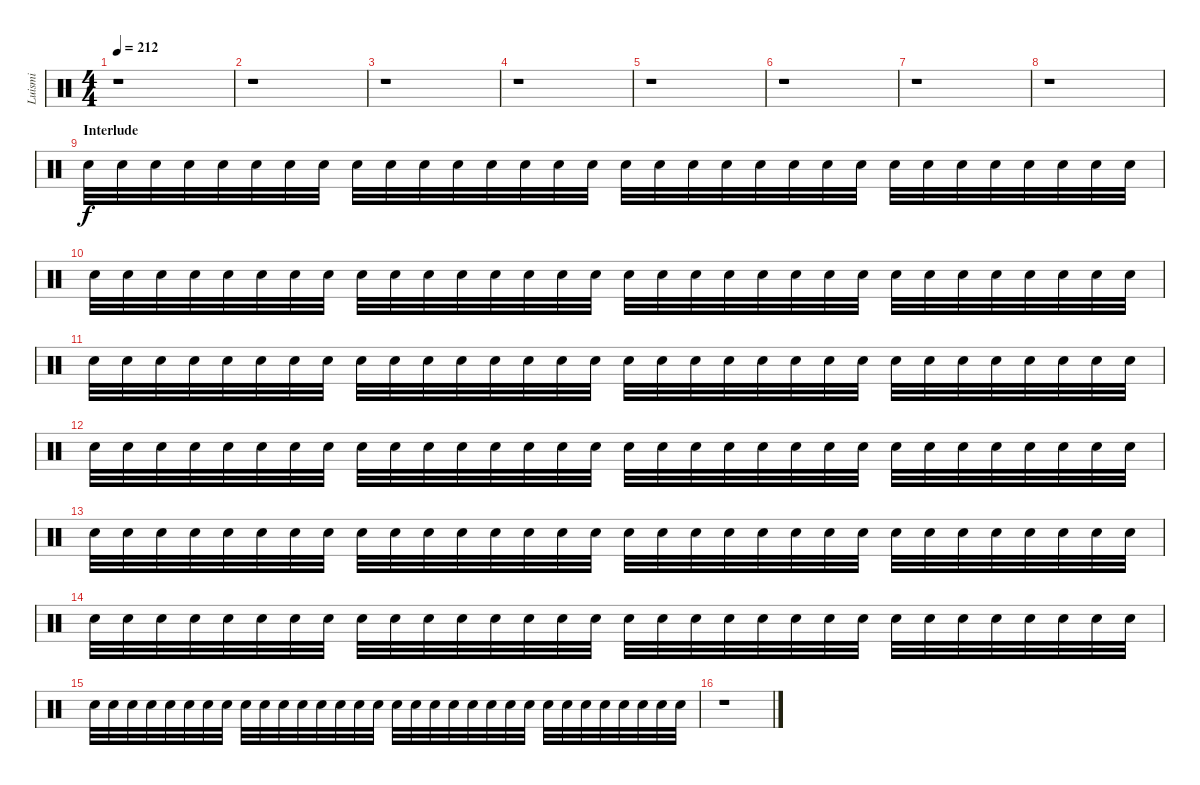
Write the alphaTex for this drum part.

\track ("Luismi" "Luismi") {instrument percussion}
\staff {score}
\articulation defaults
\ts (4 4)
\tempo 212
\clef neutral
\ks c
r.1{dy f} |
r.1 |
r.1 |
r.1 |
r.1 |
r.1 |
r.1 |
r.1 |
\section ("" "Interlude")
"Electric Snare (hit)".32{volume 1} "Snare (hit) 2".32 "Snare (hit) 2".32 "Snare (hit) 2".32 "Snare (hit) 2".32 "Snare (hit) 2".32 "Snare (hit) 2".32 "Snare (hit) 2".32 "Snare (hit) 2".32 "Snare (hit) 2".32 "Snare (hit) 2".32 "Snare (hit) 2".32 "Snare (hit) 2".32 "Snare (hit) 2".32 "Snare (hit) 2".32 "Snare (hit) 2".32 "Electric Snare (hit)".32{volume 2} "Snare (hit) 2".32 "Snare (hit) 2".32 "Snare (hit) 2".32 "Snare (hit) 2".32 "Snare (hit) 2".32 "Snare (hit) 2".32 "Snare (hit) 2".32 "Snare (hit) 2".32 "Snare (hit) 2".32 "Snare (hit) 2".32 "Snare (hit) 2".32 "Snare (hit) 2".32 "Snare (hit) 2".32 "Snare (hit) 2".32 "Snare (hit) 2".32 |
"Electric Snare (hit)".32 "Snare (hit) 2".32 "Snare (hit) 2".32 "Snare (hit) 2".32 "Snare (hit) 2".32 "Snare (hit) 2".32 "Snare (hit) 2".32 "Snare (hit) 2".32 "Snare (hit) 2".32 "Snare (hit) 2".32 "Snare (hit) 2".32 "Snare (hit) 2".32 "Snare (hit) 2".32 "Snare (hit) 2".32 "Snare (hit) 2".32 "Snare (hit) 2".32 "Electric Snare (hit)".32 "Snare (hit) 2".32 "Snare (hit) 2".32 "Snare (hit) 2".32 "Snare (hit) 2".32 "Snare (hit) 2".32 "Snare (hit) 2".32 "Snare (hit) 2".32 "Snare (hit) 2".32 "Snare (hit) 2".32 "Snare (hit) 2".32 "Snare (hit) 2".32 "Snare (hit) 2".32 "Snare (hit) 2".32 "Snare (hit) 2".32 "Snare (hit) 2".32 |
"Electric Snare (hit)".32 "Snare (hit) 2".32 "Snare (hit) 2".32 "Snare (hit) 2".32 "Snare (hit) 2".32 "Snare (hit) 2".32 "Snare (hit) 2".32 "Snare (hit) 2".32 "Snare (hit) 2".32 "Snare (hit) 2".32 "Snare (hit) 2".32 "Snare (hit) 2".32 "Snare (hit) 2".32 "Snare (hit) 2".32 "Snare (hit) 2".32 "Snare (hit) 2".32 "Electric Snare (hit)".32 "Snare (hit) 2".32 "Snare (hit) 2".32 "Snare (hit) 2".32 "Snare (hit) 2".32 "Snare (hit) 2".32 "Snare (hit) 2".32 "Snare (hit) 2".32 "Snare (hit) 2".32 "Snare (hit) 2".32 "Snare (hit) 2".32 "Snare (hit) 2".32 "Snare (hit) 2".32 "Snare (hit) 2".32 "Snare (hit) 2".32 "Snare (hit) 2".32 |
"Electric Snare (hit)".32 "Snare (hit) 2".32 "Snare (hit) 2".32 "Snare (hit) 2".32 "Snare (hit) 2".32 "Snare (hit) 2".32 "Snare (hit) 2".32 "Snare (hit) 2".32 "Snare (hit) 2".32 "Snare (hit) 2".32 "Snare (hit) 2".32 "Snare (hit) 2".32 "Snare (hit) 2".32 "Snare (hit) 2".32 "Snare (hit) 2".32 "Snare (hit) 2".32 "Electric Snare (hit)".32 "Snare (hit) 2".32 "Snare (hit) 2".32 "Snare (hit) 2".32 "Snare (hit) 2".32 "Snare (hit) 2".32 "Snare (hit) 2".32 "Snare (hit) 2".32 "Snare (hit) 2".32 "Snare (hit) 2".32 "Snare (hit) 2".32 "Snare (hit) 2".32 "Snare (hit) 2".32 "Snare (hit) 2".32 "Snare (hit) 2".32 "Snare (hit) 2".32 |
"Electric Snare (hit)".32{volume 3} "Snare (hit) 2".32 "Snare (hit) 2".32 "Snare (hit) 2".32 "Snare (hit) 2".32 "Snare (hit) 2".32 "Snare (hit) 2".32 "Snare (hit) 2".32 "Snare (hit) 2".32 "Snare (hit) 2".32 "Snare (hit) 2".32 "Snare (hit) 2".32 "Snare (hit) 2".32 "Snare (hit) 2".32 "Snare (hit) 2".32 "Snare (hit) 2".32 "Electric Snare (hit)".32 "Snare (hit) 2".32 "Snare (hit) 2".32 "Snare (hit) 2".32 "Snare (hit) 2".32 "Snare (hit) 2".32 "Snare (hit) 2".32 "Snare (hit) 2".32 "Snare (hit) 2".32 "Snare (hit) 2".32 "Snare (hit) 2".32 "Snare (hit) 2".32 "Snare (hit) 2".32 "Snare (hit) 2".32 "Snare (hit) 2".32 "Snare (hit) 2".32 |
"Electric Snare (hit)".32{volume 4} "Snare (hit) 2".32 "Snare (hit) 2".32 "Snare (hit) 2".32 "Snare (hit) 2".32 "Snare (hit) 2".32 "Snare (hit) 2".32 "Snare (hit) 2".32 "Snare (hit) 2".32 "Snare (hit) 2".32 "Snare (hit) 2".32 "Snare (hit) 2".32 "Snare (hit) 2".32 "Snare (hit) 2".32 "Snare (hit) 2".32 "Snare (hit) 2".32 "Electric Snare (hit)".32 "Snare (hit) 2".32 "Snare (hit) 2".32 "Snare (hit) 2".32 "Snare (hit) 2".32 "Snare (hit) 2".32 "Snare (hit) 2".32 "Snare (hit) 2".32 "Snare (hit) 2".32 "Snare (hit) 2".32 "Snare (hit) 2".32 "Snare (hit) 2".32 "Snare (hit) 2".32 "Snare (hit) 2".32 "Snare (hit) 2".32 "Snare (hit) 2".32 |
"Electric Snare (hit)".32{volume 5} "Snare (hit) 2".32 "Snare (hit) 2".32 "Snare (hit) 2".32 "Snare (hit) 2".32 "Snare (hit) 2".32 "Snare (hit) 2".32 "Snare (hit) 2".32 "Snare (hit) 2".32 "Snare (hit) 2".32 "Snare (hit) 2".32 "Snare (hit) 2".32 "Snare (hit) 2".32 "Snare (hit) 2".32 "Snare (hit) 2".32 "Snare (hit) 2".32 "Electric Snare (hit)".32 "Snare (hit) 2".32 "Snare (hit) 2".32 "Snare (hit) 2".32 "Snare (hit) 2".32 "Snare (hit) 2".32 "Snare (hit) 2".32 "Snare (hit) 2".32 "Snare (hit) 2".32 "Snare (hit) 2".32 "Snare (hit) 2".32 "Snare (hit) 2".32 "Snare (hit) 2".32 "Snare (hit) 2".32 "Snare (hit) 2".32 "Electric Snare (hit)".32{volume 16} |
r.1
